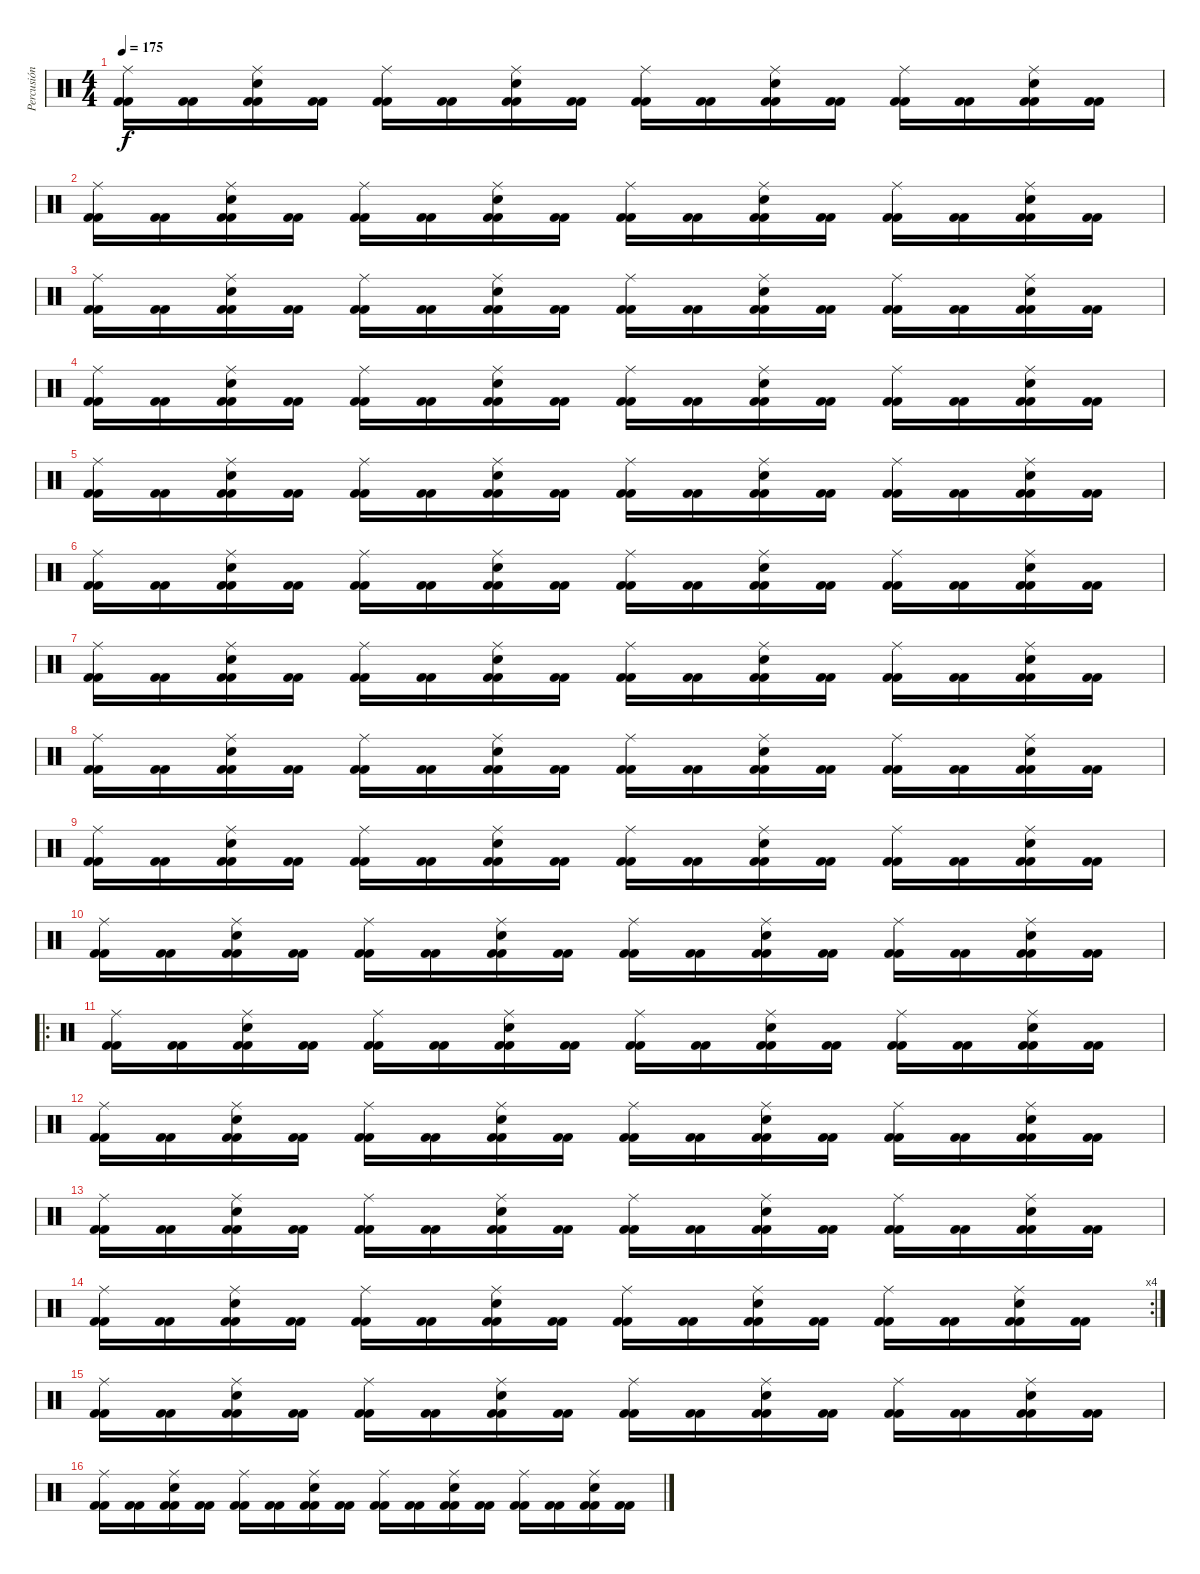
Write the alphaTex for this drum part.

\track ("Percusión" "Percusión") {instrument percussion}
\staff {score}
\articulation defaults
\ts (4 4)
\tempo 175
\clef neutral
\ks c
("Kick (hit) 2" "Kick (hit) 2" "Ride (middle)").16{dy f} ("Kick (hit) 2" "Kick (hit) 2").16 ("Kick (hit) 2" "Kick (hit) 2" "Electric Snare (hit)" "Ride (middle)").16 ("Kick (hit) 2" "Kick (hit) 2").16 ("Kick (hit) 2" "Kick (hit) 2" "Ride (middle)").16 ("Kick (hit) 2" "Kick (hit) 2").16 ("Kick (hit) 2" "Kick (hit) 2" "Electric Snare (hit)" "Ride (middle)").16 ("Kick (hit) 2" "Kick (hit) 2").16 ("Kick (hit) 2" "Kick (hit) 2" "Ride (middle)").16 ("Kick (hit) 2" "Kick (hit) 2").16 ("Kick (hit) 2" "Kick (hit) 2" "Electric Snare (hit)" "Ride (middle)").16 ("Kick (hit) 2" "Kick (hit) 2").16 ("Kick (hit) 2" "Kick (hit) 2" "Ride (middle)").16 ("Kick (hit) 2" "Kick (hit) 2").16 ("Kick (hit) 2" "Kick (hit) 2" "Electric Snare (hit)" "Ride (middle)").16 ("Kick (hit) 2" "Kick (hit) 2").16 |
("Kick (hit) 2" "Kick (hit) 2" "Ride (middle)").16 ("Kick (hit) 2" "Kick (hit) 2").16 ("Kick (hit) 2" "Kick (hit) 2" "Electric Snare (hit)" "Ride (middle)").16 ("Kick (hit) 2" "Kick (hit) 2").16 ("Kick (hit) 2" "Kick (hit) 2" "Ride (middle)").16 ("Kick (hit) 2" "Kick (hit) 2").16 ("Kick (hit) 2" "Kick (hit) 2" "Electric Snare (hit)" "Ride (middle)").16 ("Kick (hit) 2" "Kick (hit) 2").16 ("Kick (hit) 2" "Kick (hit) 2" "Ride (middle)").16 ("Kick (hit) 2" "Kick (hit) 2").16 ("Kick (hit) 2" "Kick (hit) 2" "Electric Snare (hit)" "Ride (middle)").16 ("Kick (hit) 2" "Kick (hit) 2").16 ("Kick (hit) 2" "Kick (hit) 2" "Ride (middle)").16 ("Kick (hit) 2" "Kick (hit) 2").16 ("Kick (hit) 2" "Kick (hit) 2" "Electric Snare (hit)" "Ride (middle)").16 ("Kick (hit) 2" "Kick (hit) 2").16 |
("Kick (hit) 2" "Kick (hit) 2" "Ride (middle)").16 ("Kick (hit) 2" "Kick (hit) 2").16 ("Kick (hit) 2" "Kick (hit) 2" "Electric Snare (hit)" "Ride (middle)").16 ("Kick (hit) 2" "Kick (hit) 2").16 ("Kick (hit) 2" "Kick (hit) 2" "Ride (middle)").16 ("Kick (hit) 2" "Kick (hit) 2").16 ("Kick (hit) 2" "Kick (hit) 2" "Electric Snare (hit)" "Ride (middle)").16 ("Kick (hit) 2" "Kick (hit) 2").16 ("Kick (hit) 2" "Kick (hit) 2" "Ride (middle)").16 ("Kick (hit) 2" "Kick (hit) 2").16 ("Kick (hit) 2" "Kick (hit) 2" "Electric Snare (hit)" "Ride (middle)").16 ("Kick (hit) 2" "Kick (hit) 2").16 ("Kick (hit) 2" "Kick (hit) 2" "Ride (middle)").16 ("Kick (hit) 2" "Kick (hit) 2").16 ("Kick (hit) 2" "Kick (hit) 2" "Electric Snare (hit)" "Ride (middle)").16 ("Kick (hit) 2" "Kick (hit) 2").16 |
("Kick (hit) 2" "Kick (hit) 2" "Ride (middle)").16 ("Kick (hit) 2" "Kick (hit) 2").16 ("Kick (hit) 2" "Kick (hit) 2" "Electric Snare (hit)" "Ride (middle)").16 ("Kick (hit) 2" "Kick (hit) 2").16 ("Kick (hit) 2" "Kick (hit) 2" "Ride (middle)").16 ("Kick (hit) 2" "Kick (hit) 2").16 ("Kick (hit) 2" "Kick (hit) 2" "Electric Snare (hit)" "Ride (middle)").16 ("Kick (hit) 2" "Kick (hit) 2").16 ("Kick (hit) 2" "Kick (hit) 2" "Ride (middle)").16 ("Kick (hit) 2" "Kick (hit) 2").16 ("Kick (hit) 2" "Kick (hit) 2" "Electric Snare (hit)" "Ride (middle)").16 ("Kick (hit) 2" "Kick (hit) 2").16 ("Kick (hit) 2" "Kick (hit) 2" "Ride (middle)").16 ("Kick (hit) 2" "Kick (hit) 2").16 ("Kick (hit) 2" "Kick (hit) 2" "Electric Snare (hit)" "Ride (middle)").16 ("Kick (hit) 2" "Kick (hit) 2").16 |
("Kick (hit) 2" "Kick (hit) 2" "Ride (middle)").16 ("Kick (hit) 2" "Kick (hit) 2").16 ("Kick (hit) 2" "Kick (hit) 2" "Electric Snare (hit)" "Ride (middle)").16 ("Kick (hit) 2" "Kick (hit) 2").16 ("Kick (hit) 2" "Kick (hit) 2" "Ride (middle)").16 ("Kick (hit) 2" "Kick (hit) 2").16 ("Kick (hit) 2" "Kick (hit) 2" "Electric Snare (hit)" "Ride (middle)").16 ("Kick (hit) 2" "Kick (hit) 2").16 ("Kick (hit) 2" "Kick (hit) 2" "Ride (middle)").16 ("Kick (hit) 2" "Kick (hit) 2").16 ("Kick (hit) 2" "Kick (hit) 2" "Electric Snare (hit)" "Ride (middle)").16 ("Kick (hit) 2" "Kick (hit) 2").16 ("Kick (hit) 2" "Kick (hit) 2" "Ride (middle)").16 ("Kick (hit) 2" "Kick (hit) 2").16 ("Kick (hit) 2" "Kick (hit) 2" "Electric Snare (hit)" "Ride (middle)").16 ("Kick (hit) 2" "Kick (hit) 2").16 |
("Kick (hit) 2" "Kick (hit) 2" "Ride (middle)").16 ("Kick (hit) 2" "Kick (hit) 2").16 ("Kick (hit) 2" "Kick (hit) 2" "Electric Snare (hit)" "Ride (middle)").16 ("Kick (hit) 2" "Kick (hit) 2").16 ("Kick (hit) 2" "Kick (hit) 2" "Ride (middle)").16 ("Kick (hit) 2" "Kick (hit) 2").16 ("Kick (hit) 2" "Kick (hit) 2" "Electric Snare (hit)" "Ride (middle)").16 ("Kick (hit) 2" "Kick (hit) 2").16 ("Kick (hit) 2" "Kick (hit) 2" "Ride (middle)").16 ("Kick (hit) 2" "Kick (hit) 2").16 ("Kick (hit) 2" "Kick (hit) 2" "Electric Snare (hit)" "Ride (middle)").16 ("Kick (hit) 2" "Kick (hit) 2").16 ("Kick (hit) 2" "Kick (hit) 2" "Ride (middle)").16 ("Kick (hit) 2" "Kick (hit) 2").16 ("Kick (hit) 2" "Kick (hit) 2" "Electric Snare (hit)" "Ride (middle)").16 ("Kick (hit) 2" "Kick (hit) 2").16 |
("Kick (hit) 2" "Kick (hit) 2" "Ride (middle)").16 ("Kick (hit) 2" "Kick (hit) 2").16 ("Kick (hit) 2" "Kick (hit) 2" "Electric Snare (hit)" "Ride (middle)").16 ("Kick (hit) 2" "Kick (hit) 2").16 ("Kick (hit) 2" "Kick (hit) 2" "Ride (middle)").16 ("Kick (hit) 2" "Kick (hit) 2").16 ("Kick (hit) 2" "Kick (hit) 2" "Electric Snare (hit)" "Ride (middle)").16 ("Kick (hit) 2" "Kick (hit) 2").16 ("Kick (hit) 2" "Kick (hit) 2" "Ride (middle)").16 ("Kick (hit) 2" "Kick (hit) 2").16 ("Kick (hit) 2" "Kick (hit) 2" "Electric Snare (hit)" "Ride (middle)").16 ("Kick (hit) 2" "Kick (hit) 2").16 ("Kick (hit) 2" "Kick (hit) 2" "Ride (middle)").16 ("Kick (hit) 2" "Kick (hit) 2").16 ("Kick (hit) 2" "Kick (hit) 2" "Electric Snare (hit)" "Ride (middle)").16 ("Kick (hit) 2" "Kick (hit) 2").16 |
("Kick (hit) 2" "Kick (hit) 2" "Ride (middle)").16 ("Kick (hit) 2" "Kick (hit) 2").16 ("Kick (hit) 2" "Kick (hit) 2" "Electric Snare (hit)" "Ride (middle)").16 ("Kick (hit) 2" "Kick (hit) 2").16 ("Kick (hit) 2" "Kick (hit) 2" "Ride (middle)").16 ("Kick (hit) 2" "Kick (hit) 2").16 ("Kick (hit) 2" "Kick (hit) 2" "Electric Snare (hit)" "Ride (middle)").16 ("Kick (hit) 2" "Kick (hit) 2").16 ("Kick (hit) 2" "Kick (hit) 2" "Ride (middle)").16 ("Kick (hit) 2" "Kick (hit) 2").16 ("Kick (hit) 2" "Kick (hit) 2" "Electric Snare (hit)" "Ride (middle)").16 ("Kick (hit) 2" "Kick (hit) 2").16 ("Kick (hit) 2" "Kick (hit) 2" "Ride (middle)").16 ("Kick (hit) 2" "Kick (hit) 2").16 ("Kick (hit) 2" "Kick (hit) 2" "Electric Snare (hit)" "Ride (middle)").16 ("Kick (hit) 2" "Kick (hit) 2").16 |
("Kick (hit) 2" "Kick (hit) 2" "Ride (middle)").16 ("Kick (hit) 2" "Kick (hit) 2").16 ("Kick (hit) 2" "Kick (hit) 2" "Electric Snare (hit)" "Ride (middle)").16 ("Kick (hit) 2" "Kick (hit) 2").16 ("Kick (hit) 2" "Kick (hit) 2" "Ride (middle)").16 ("Kick (hit) 2" "Kick (hit) 2").16 ("Kick (hit) 2" "Kick (hit) 2" "Electric Snare (hit)" "Ride (middle)").16 ("Kick (hit) 2" "Kick (hit) 2").16 ("Kick (hit) 2" "Kick (hit) 2" "Ride (middle)").16 ("Kick (hit) 2" "Kick (hit) 2").16 ("Kick (hit) 2" "Kick (hit) 2" "Electric Snare (hit)" "Ride (middle)").16 ("Kick (hit) 2" "Kick (hit) 2").16 ("Kick (hit) 2" "Kick (hit) 2" "Ride (middle)").16 ("Kick (hit) 2" "Kick (hit) 2").16 ("Kick (hit) 2" "Kick (hit) 2" "Electric Snare (hit)" "Ride (middle)").16 ("Kick (hit) 2" "Kick (hit) 2").16 |
("Kick (hit) 2" "Kick (hit) 2" "Ride (middle)").16 ("Kick (hit) 2" "Kick (hit) 2").16 ("Kick (hit) 2" "Kick (hit) 2" "Electric Snare (hit)" "Ride (middle)").16 ("Kick (hit) 2" "Kick (hit) 2").16 ("Kick (hit) 2" "Kick (hit) 2" "Ride (middle)").16 ("Kick (hit) 2" "Kick (hit) 2").16 ("Kick (hit) 2" "Kick (hit) 2" "Electric Snare (hit)" "Ride (middle)").16 ("Kick (hit) 2" "Kick (hit) 2").16 ("Kick (hit) 2" "Kick (hit) 2" "Ride (middle)").16 ("Kick (hit) 2" "Kick (hit) 2").16 ("Kick (hit) 2" "Kick (hit) 2" "Electric Snare (hit)" "Ride (middle)").16 ("Kick (hit) 2" "Kick (hit) 2").16 ("Kick (hit) 2" "Kick (hit) 2" "Ride (middle)").16 ("Kick (hit) 2" "Kick (hit) 2").16 ("Kick (hit) 2" "Kick (hit) 2" "Electric Snare (hit)" "Ride (middle)").16 ("Kick (hit) 2" "Kick (hit) 2").16 |
\ro
("Kick (hit) 2" "Kick (hit) 2" "Ride (middle)").16 ("Kick (hit) 2" "Kick (hit) 2").16 ("Kick (hit) 2" "Kick (hit) 2" "Electric Snare (hit)" "Ride (middle)").16 ("Kick (hit) 2" "Kick (hit) 2").16 ("Kick (hit) 2" "Kick (hit) 2" "Ride (middle)").16 ("Kick (hit) 2" "Kick (hit) 2").16 ("Kick (hit) 2" "Kick (hit) 2" "Electric Snare (hit)" "Ride (middle)").16 ("Kick (hit) 2" "Kick (hit) 2").16 ("Kick (hit) 2" "Kick (hit) 2" "Ride (middle)").16 ("Kick (hit) 2" "Kick (hit) 2").16 ("Kick (hit) 2" "Kick (hit) 2" "Electric Snare (hit)" "Ride (middle)").16 ("Kick (hit) 2" "Kick (hit) 2").16 ("Kick (hit) 2" "Kick (hit) 2" "Ride (middle)").16 ("Kick (hit) 2" "Kick (hit) 2").16 ("Kick (hit) 2" "Kick (hit) 2" "Electric Snare (hit)" "Ride (middle)").16 ("Kick (hit) 2" "Kick (hit) 2").16 |
("Kick (hit) 2" "Kick (hit) 2" "Ride (middle)").16 ("Kick (hit) 2" "Kick (hit) 2").16 ("Kick (hit) 2" "Kick (hit) 2" "Electric Snare (hit)" "Ride (middle)").16 ("Kick (hit) 2" "Kick (hit) 2").16 ("Kick (hit) 2" "Kick (hit) 2" "Ride (middle)").16 ("Kick (hit) 2" "Kick (hit) 2").16 ("Kick (hit) 2" "Kick (hit) 2" "Electric Snare (hit)" "Ride (middle)").16 ("Kick (hit) 2" "Kick (hit) 2").16 ("Kick (hit) 2" "Kick (hit) 2" "Ride (middle)").16 ("Kick (hit) 2" "Kick (hit) 2").16 ("Kick (hit) 2" "Kick (hit) 2" "Electric Snare (hit)" "Ride (middle)").16 ("Kick (hit) 2" "Kick (hit) 2").16 ("Kick (hit) 2" "Kick (hit) 2" "Ride (middle)").16 ("Kick (hit) 2" "Kick (hit) 2").16 ("Kick (hit) 2" "Kick (hit) 2" "Electric Snare (hit)" "Ride (middle)").16 ("Kick (hit) 2" "Kick (hit) 2").16 |
("Kick (hit) 2" "Kick (hit) 2" "Ride (middle)").16 ("Kick (hit) 2" "Kick (hit) 2").16 ("Kick (hit) 2" "Kick (hit) 2" "Electric Snare (hit)" "Ride (middle)").16 ("Kick (hit) 2" "Kick (hit) 2").16 ("Kick (hit) 2" "Kick (hit) 2" "Ride (middle)").16 ("Kick (hit) 2" "Kick (hit) 2").16 ("Kick (hit) 2" "Kick (hit) 2" "Electric Snare (hit)" "Ride (middle)").16 ("Kick (hit) 2" "Kick (hit) 2").16 ("Kick (hit) 2" "Kick (hit) 2" "Ride (middle)").16 ("Kick (hit) 2" "Kick (hit) 2").16 ("Kick (hit) 2" "Kick (hit) 2" "Electric Snare (hit)" "Ride (middle)").16 ("Kick (hit) 2" "Kick (hit) 2").16 ("Kick (hit) 2" "Kick (hit) 2" "Ride (middle)").16 ("Kick (hit) 2" "Kick (hit) 2").16 ("Kick (hit) 2" "Kick (hit) 2" "Electric Snare (hit)" "Ride (middle)").16 ("Kick (hit) 2" "Kick (hit) 2").16 |
\rc 4
("Kick (hit) 2" "Kick (hit) 2" "Ride (middle)").16 ("Kick (hit) 2" "Kick (hit) 2").16 ("Kick (hit) 2" "Kick (hit) 2" "Electric Snare (hit)" "Ride (middle)").16 ("Kick (hit) 2" "Kick (hit) 2").16 ("Kick (hit) 2" "Kick (hit) 2" "Ride (middle)").16 ("Kick (hit) 2" "Kick (hit) 2").16 ("Kick (hit) 2" "Kick (hit) 2" "Electric Snare (hit)" "Ride (middle)").16 ("Kick (hit) 2" "Kick (hit) 2").16 ("Kick (hit) 2" "Kick (hit) 2" "Ride (middle)").16 ("Kick (hit) 2" "Kick (hit) 2").16 ("Kick (hit) 2" "Kick (hit) 2" "Electric Snare (hit)" "Ride (middle)").16 ("Kick (hit) 2" "Kick (hit) 2").16 ("Kick (hit) 2" "Kick (hit) 2" "Ride (middle)").16 ("Kick (hit) 2" "Kick (hit) 2").16 ("Kick (hit) 2" "Kick (hit) 2" "Electric Snare (hit)" "Ride (middle)").16 ("Kick (hit) 2" "Kick (hit) 2").16 |
("Kick (hit) 2" "Kick (hit) 2" "Ride (middle)").16 ("Kick (hit) 2" "Kick (hit) 2").16 ("Kick (hit) 2" "Kick (hit) 2" "Electric Snare (hit)" "Ride (middle)").16 ("Kick (hit) 2" "Kick (hit) 2").16 ("Kick (hit) 2" "Kick (hit) 2" "Ride (middle)").16 ("Kick (hit) 2" "Kick (hit) 2").16 ("Kick (hit) 2" "Kick (hit) 2" "Electric Snare (hit)" "Ride (middle)").16 ("Kick (hit) 2" "Kick (hit) 2").16 ("Kick (hit) 2" "Kick (hit) 2" "Ride (middle)").16 ("Kick (hit) 2" "Kick (hit) 2").16 ("Kick (hit) 2" "Kick (hit) 2" "Electric Snare (hit)" "Ride (middle)").16 ("Kick (hit) 2" "Kick (hit) 2").16 ("Kick (hit) 2" "Kick (hit) 2" "Ride (middle)").16 ("Kick (hit) 2" "Kick (hit) 2").16 ("Kick (hit) 2" "Kick (hit) 2" "Electric Snare (hit)" "Ride (middle)").16 ("Kick (hit) 2" "Kick (hit) 2").16 |
("Kick (hit) 2" "Kick (hit) 2" "Ride (middle)").16 ("Kick (hit) 2" "Kick (hit) 2").16 ("Kick (hit) 2" "Kick (hit) 2" "Electric Snare (hit)" "Ride (middle)").16 ("Kick (hit) 2" "Kick (hit) 2").16 ("Kick (hit) 2" "Kick (hit) 2" "Ride (middle)").16 ("Kick (hit) 2" "Kick (hit) 2").16 ("Kick (hit) 2" "Kick (hit) 2" "Electric Snare (hit)" "Ride (middle)").16 ("Kick (hit) 2" "Kick (hit) 2").16 ("Kick (hit) 2" "Kick (hit) 2" "Ride (middle)").16 ("Kick (hit) 2" "Kick (hit) 2").16 ("Kick (hit) 2" "Kick (hit) 2" "Electric Snare (hit)" "Ride (middle)").16 ("Kick (hit) 2" "Kick (hit) 2").16 ("Kick (hit) 2" "Kick (hit) 2" "Ride (middle)").16 ("Kick (hit) 2" "Kick (hit) 2").16 ("Kick (hit) 2" "Kick (hit) 2" "Electric Snare (hit)" "Ride (middle)").16 ("Kick (hit) 2" "Kick (hit) 2").16
